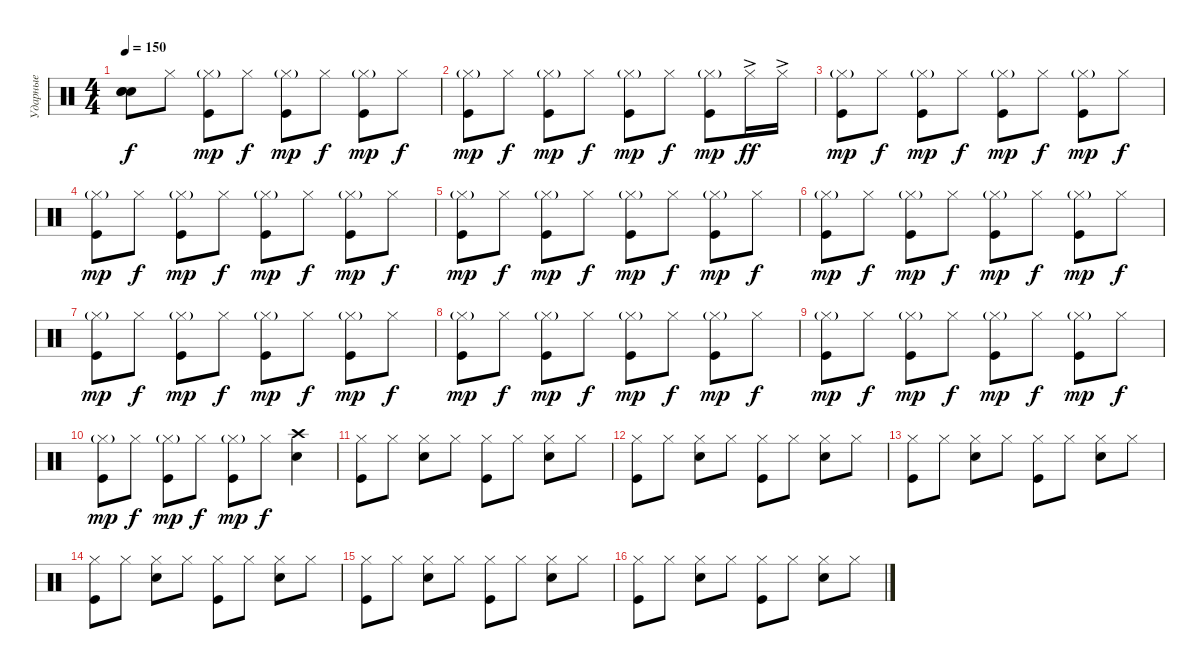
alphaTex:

\track ("Ударные" "Ударные") {instrument percussion}
\staff {score}
\articulation defaults
\ts (4 4)
\tempo 150
\clef neutral
\ks c
("Snare (hit)"{t} "Snare (hit)"{t} "Snare (hit)"{t}).8{dy f} "Hi-Hat (closed)".8 ("Hi-Hat (closed)"{g} "Kick (hit)").8{dy mp} "Hi-Hat (closed)".8{dy f} ("Hi-Hat (closed)"{g} "Kick (hit)").8{dy mp} "Hi-Hat (closed)".8{dy f} ("Hi-Hat (closed)"{g} "Kick (hit)").8{dy mp} "Hi-Hat (closed)".8{dy f} |
("Hi-Hat (closed)"{g} "Kick (hit)").8{dy mp} "Hi-Hat (closed)".8{dy f} ("Hi-Hat (closed)"{g} "Kick (hit)").8{dy mp} "Hi-Hat (closed)".8{dy f} ("Hi-Hat (closed)"{g} "Kick (hit)").8{dy mp} "Hi-Hat (closed)".8{dy f} ("Hi-Hat (closed)"{g} "Kick (hit)").8{dy mp} "Hi-Hat (closed)"{ac}.16{dy ff} "Hi-Hat (closed)"{ac}.16 |
("Hi-Hat (closed)"{g} "Kick (hit)").8{dy mp} "Hi-Hat (closed)".8{dy f} ("Hi-Hat (closed)"{g} "Kick (hit)").8{dy mp} "Hi-Hat (closed)".8{dy f} ("Hi-Hat (closed)"{g} "Kick (hit)").8{dy mp} "Hi-Hat (closed)".8{dy f} ("Hi-Hat (closed)"{g} "Kick (hit)").8{dy mp} "Hi-Hat (closed)".8{dy f} |
("Hi-Hat (closed)"{g} "Kick (hit)").8{dy mp} "Hi-Hat (closed)".8{dy f} ("Hi-Hat (closed)"{g} "Kick (hit)").8{dy mp} "Hi-Hat (closed)".8{dy f} ("Hi-Hat (closed)"{g} "Kick (hit)").8{dy mp} "Hi-Hat (closed)".8{dy f} ("Hi-Hat (closed)"{g} "Kick (hit)").8{dy mp} "Hi-Hat (closed)".8{dy f} |
("Hi-Hat (closed)"{g} "Kick (hit)").8{dy mp} "Hi-Hat (closed)".8{dy f} ("Hi-Hat (closed)"{g} "Kick (hit)").8{dy mp} "Hi-Hat (closed)".8{dy f} ("Hi-Hat (closed)"{g} "Kick (hit)").8{dy mp} "Hi-Hat (closed)".8{dy f} ("Hi-Hat (closed)"{g} "Kick (hit)").8{dy mp} "Hi-Hat (closed)".8{dy f} |
("Hi-Hat (closed)"{g} "Kick (hit)").8{dy mp} "Hi-Hat (closed)".8{dy f} ("Hi-Hat (closed)"{g} "Kick (hit)").8{dy mp} "Hi-Hat (closed)".8{dy f} ("Hi-Hat (closed)"{g} "Kick (hit)").8{dy mp} "Hi-Hat (closed)".8{dy f} ("Hi-Hat (closed)"{g} "Kick (hit)").8{dy mp} "Hi-Hat (closed)".8{dy f} |
("Hi-Hat (closed)"{g} "Kick (hit)").8{dy mp} "Hi-Hat (closed)".8{dy f} ("Hi-Hat (closed)"{g} "Kick (hit)").8{dy mp} "Hi-Hat (closed)".8{dy f} ("Hi-Hat (closed)"{g} "Kick (hit)").8{dy mp} "Hi-Hat (closed)".8{dy f} ("Hi-Hat (closed)"{g} "Kick (hit)").8{dy mp} "Hi-Hat (closed)".8{dy f} |
("Hi-Hat (closed)"{g} "Kick (hit)").8{dy mp} "Hi-Hat (closed)".8{dy f} ("Hi-Hat (closed)"{g} "Kick (hit)").8{dy mp} "Hi-Hat (closed)".8{dy f} ("Hi-Hat (closed)"{g} "Kick (hit)").8{dy mp} "Hi-Hat (closed)".8{dy f} ("Hi-Hat (closed)"{g} "Kick (hit)").8{dy mp} "Hi-Hat (closed)".8{dy f} |
("Hi-Hat (closed)"{g} "Kick (hit)").8{dy mp} "Hi-Hat (closed)".8{dy f} ("Hi-Hat (closed)"{g} "Kick (hit)").8{dy mp} "Hi-Hat (closed)".8{dy f} ("Hi-Hat (closed)"{g} "Kick (hit)").8{dy mp} "Hi-Hat (closed)".8{dy f} ("Hi-Hat (closed)"{g} "Kick (hit)").8{dy mp} "Hi-Hat (closed)".8{dy f} |
("Hi-Hat (closed)"{g} "Kick (hit)").8{dy mp} "Hi-Hat (closed)".8{dy f} ("Hi-Hat (closed)"{g} "Kick (hit)").8{dy mp} "Hi-Hat (closed)".8{dy f} ("Hi-Hat (closed)"{g} "Kick (hit)").8{dy mp} "Hi-Hat (closed)".8{dy f} ("Snare (hit) 2" "Crash high (hit)").4 |
("Hi-Hat (closed)" "Kick (hit)").8 "Hi-Hat (closed)".8 ("Hi-Hat (closed)" "Snare (hit) 2").8 "Hi-Hat (closed)".8 ("Hi-Hat (closed)" "Kick (hit)").8 "Hi-Hat (closed)".8 ("Hi-Hat (closed)" "Snare (hit) 2").8 "Hi-Hat (closed)".8 |
("Hi-Hat (closed)" "Kick (hit)").8 "Hi-Hat (closed)".8 ("Hi-Hat (closed)" "Snare (hit) 2").8 "Hi-Hat (closed)".8 ("Hi-Hat (closed)" "Kick (hit)").8 "Hi-Hat (closed)".8 ("Hi-Hat (closed)" "Snare (hit) 2").8 "Hi-Hat (closed)".8 |
("Hi-Hat (closed)" "Kick (hit)").8 "Hi-Hat (closed)".8 ("Hi-Hat (closed)" "Snare (hit) 2").8 "Hi-Hat (closed)".8 ("Hi-Hat (closed)" "Kick (hit)").8 "Hi-Hat (closed)".8 ("Hi-Hat (closed)" "Snare (hit) 2").8 "Hi-Hat (closed)".8 |
("Hi-Hat (closed)" "Kick (hit)").8 "Hi-Hat (closed)".8 ("Hi-Hat (closed)" "Snare (hit) 2").8 "Hi-Hat (closed)".8 ("Hi-Hat (closed)" "Kick (hit)").8 "Hi-Hat (closed)".8 ("Hi-Hat (closed)" "Snare (hit) 2").8 "Hi-Hat (closed)".8 |
("Hi-Hat (closed)" "Kick (hit)").8 "Hi-Hat (closed)".8 ("Hi-Hat (closed)" "Snare (hit) 2").8 "Hi-Hat (closed)".8 ("Hi-Hat (closed)" "Kick (hit)").8 "Hi-Hat (closed)".8 ("Hi-Hat (closed)" "Snare (hit) 2").8 "Hi-Hat (closed)".8 |
("Hi-Hat (closed)" "Kick (hit)").8 "Hi-Hat (closed)".8 ("Hi-Hat (closed)" "Snare (hit) 2").8 "Hi-Hat (closed)".8 ("Hi-Hat (closed)" "Kick (hit)").8 "Hi-Hat (closed)".8 ("Hi-Hat (closed)" "Snare (hit) 2").8 "Hi-Hat (closed)".8
